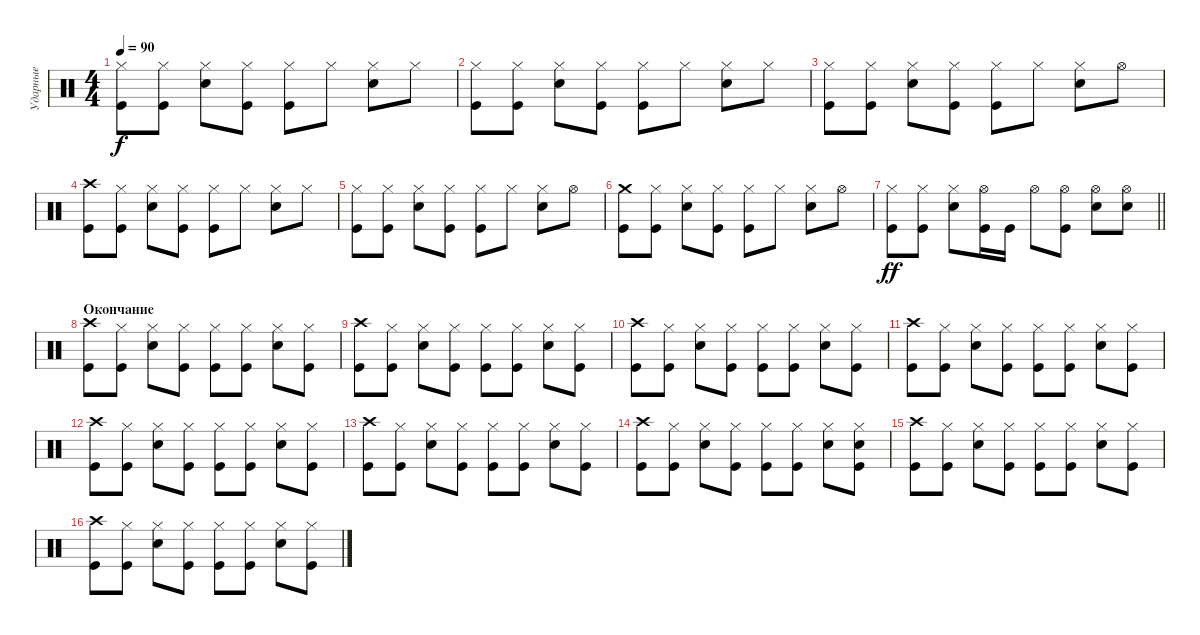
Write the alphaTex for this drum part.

\track ("Ударные" "Ударные") {instrument percussion}
\staff {score}
\articulation defaults
\ts (4 4)
\tempo 90
\clef neutral
\ks c
("Hi-Hat (closed)" "Kick (hit)").8{dy f} ("Hi-Hat (closed)" "Kick (hit)").8 ("Hi-Hat (closed)" "Snare (hit) 2").8 ("Hi-Hat (closed)" "Kick (hit)").8 ("Hi-Hat (closed)" "Kick (hit)").8 "Hi-Hat (closed)".8 ("Hi-Hat (closed)" "Snare (hit) 2").8 "Hi-Hat (closed)".8 |
("Hi-Hat (closed)" "Kick (hit)").8 ("Hi-Hat (closed)" "Kick (hit)").8 ("Hi-Hat (closed)" "Snare (hit) 2").8 ("Hi-Hat (closed)" "Kick (hit)").8 ("Hi-Hat (closed)" "Kick (hit)").8 "Hi-Hat (closed)".8 ("Hi-Hat (closed)" "Snare (hit) 2").8 "Hi-Hat (closed)".8 |
("Hi-Hat (closed)" "Kick (hit)").8 ("Hi-Hat (closed)" "Kick (hit)").8 ("Hi-Hat (closed)" "Snare (hit) 2").8 ("Hi-Hat (closed)" "Kick (hit)").8 ("Hi-Hat (closed)" "Kick (hit)").8 "Hi-Hat (closed)".8 ("Hi-Hat (closed)" "Snare (hit) 2").8 "Hi-Hat (open)".8 |
("Crash high (hit)" "Kick (hit)").8 ("Hi-Hat (closed)" "Kick (hit)").8 ("Hi-Hat (closed)" "Snare (hit) 2").8 ("Hi-Hat (closed)" "Kick (hit)").8 ("Hi-Hat (closed)" "Kick (hit)").8 "Hi-Hat (closed)".8 ("Hi-Hat (closed)" "Snare (hit) 2").8 "Hi-Hat (closed)".8 |
("Hi-Hat (closed)" "Kick (hit)").8 ("Hi-Hat (closed)" "Kick (hit)").8 ("Hi-Hat (closed)" "Snare (hit) 2").8 ("Hi-Hat (closed)" "Kick (hit)").8 ("Hi-Hat (closed)" "Kick (hit)").8 "Hi-Hat (closed)".8 ("Hi-Hat (closed)" "Snare (hit) 2").8 "Hi-Hat (open)".8 |
("Crash medium (hit)" "Kick (hit)").8 ("Hi-Hat (closed)" "Kick (hit)").8 ("Hi-Hat (closed)" "Snare (hit) 2").8 ("Hi-Hat (closed)" "Kick (hit)").8 ("Hi-Hat (closed)" "Kick (hit)").8 "Hi-Hat (closed)".8 ("Hi-Hat (closed)" "Snare (hit) 2").8 "Hi-Hat (open)".8 |
\barLineRight lightlight
("Hi-Hat (closed)" "Kick (hit)").8{dy ff} ("Hi-Hat (closed)" "Kick (hit)").8 ("Hi-Hat (closed)" "Snare (hit) 2").8 ("Hi-Hat (open)" "Kick (hit)").16 "Kick (hit)".16 "Hi-Hat (open)".8 ("Hi-Hat (open)" "Kick (hit)").8 ("Hi-Hat (open)" "Snare (hit) 2").8 ("Hi-Hat (open)" "Snare (hit) 2").8 |
\section ("" "Окончание")
("Crash high (hit)" "Kick (hit)").8 ("Hi-Hat (closed)" "Kick (hit)").8 ("Hi-Hat (closed)" "Snare (hit) 2").8 ("Hi-Hat (closed)" "Kick (hit)").8 ("Hi-Hat (closed)" "Kick (hit)").8 ("Hi-Hat (closed)" "Kick (hit)").8 ("Hi-Hat (closed)" "Snare (hit) 2").8 ("Hi-Hat (closed)" "Kick (hit)").8 |
("Crash high (hit)" "Kick (hit)").8 ("Hi-Hat (closed)" "Kick (hit)").8 ("Hi-Hat (closed)" "Snare (hit) 2").8 ("Hi-Hat (closed)" "Kick (hit)").8 ("Hi-Hat (closed)" "Kick (hit)").8 ("Hi-Hat (closed)" "Kick (hit)").8 ("Hi-Hat (closed)" "Snare (hit) 2").8 ("Hi-Hat (closed)" "Kick (hit)").8 |
("Crash high (hit)" "Kick (hit)").8 ("Hi-Hat (closed)" "Kick (hit)").8 ("Hi-Hat (closed)" "Snare (hit) 2").8 ("Hi-Hat (closed)" "Kick (hit)").8 ("Hi-Hat (closed)" "Kick (hit)").8 ("Hi-Hat (closed)" "Kick (hit)").8 ("Hi-Hat (closed)" "Snare (hit) 2").8 ("Hi-Hat (closed)" "Kick (hit)").8 |
("Crash high (hit)" "Kick (hit)").8 ("Hi-Hat (closed)" "Kick (hit)").8 ("Hi-Hat (closed)" "Snare (hit) 2").8 ("Hi-Hat (closed)" "Kick (hit)").8 ("Hi-Hat (closed)" "Kick (hit)").8 ("Hi-Hat (closed)" "Kick (hit)").8 ("Hi-Hat (closed)" "Snare (hit) 2").8 ("Hi-Hat (closed)" "Kick (hit)").8 |
("Crash high (hit)" "Kick (hit)").8 ("Hi-Hat (closed)" "Kick (hit)").8 ("Hi-Hat (closed)" "Snare (hit) 2").8 ("Hi-Hat (closed)" "Kick (hit)").8 ("Hi-Hat (closed)" "Kick (hit)").8 ("Hi-Hat (closed)" "Kick (hit)").8 ("Hi-Hat (closed)" "Snare (hit) 2").8 ("Hi-Hat (closed)" "Kick (hit)").8 |
("Crash high (hit)" "Kick (hit)").8 ("Hi-Hat (closed)" "Kick (hit)").8 ("Hi-Hat (closed)" "Snare (hit) 2").8 ("Hi-Hat (closed)" "Kick (hit)").8 ("Hi-Hat (closed)" "Kick (hit)").8 ("Hi-Hat (closed)" "Kick (hit)").8 ("Hi-Hat (closed)" "Snare (hit) 2").8 ("Hi-Hat (closed)" "Kick (hit)").8 |
("Crash high (hit)" "Kick (hit)").8 ("Hi-Hat (closed)" "Kick (hit)").8 ("Hi-Hat (closed)" "Snare (hit) 2").8 ("Hi-Hat (closed)" "Kick (hit)").8 ("Hi-Hat (closed)" "Kick (hit)").8 ("Hi-Hat (closed)" "Kick (hit)").8 ("Hi-Hat (closed)" "Snare (hit) 2").8 ("Hi-Hat (closed)" "Kick (hit)" "Snare (hit) 2").8 |
("Crash high (hit)" "Kick (hit)").8 ("Hi-Hat (closed)" "Kick (hit)").8 ("Hi-Hat (closed)" "Snare (hit) 2").8 ("Hi-Hat (closed)" "Kick (hit)").8 ("Hi-Hat (closed)" "Kick (hit)").8 ("Hi-Hat (closed)" "Kick (hit)").8 ("Hi-Hat (closed)" "Snare (hit) 2").8 ("Hi-Hat (closed)" "Kick (hit)").8 |
("Crash high (hit)" "Kick (hit)").8 ("Hi-Hat (closed)" "Kick (hit)").8 ("Hi-Hat (closed)" "Snare (hit) 2").8 ("Hi-Hat (closed)" "Kick (hit)").8 ("Hi-Hat (closed)" "Kick (hit)").8 ("Hi-Hat (closed)" "Kick (hit)").8 ("Hi-Hat (closed)" "Snare (hit) 2").8 ("Hi-Hat (closed)" "Kick (hit)").8
